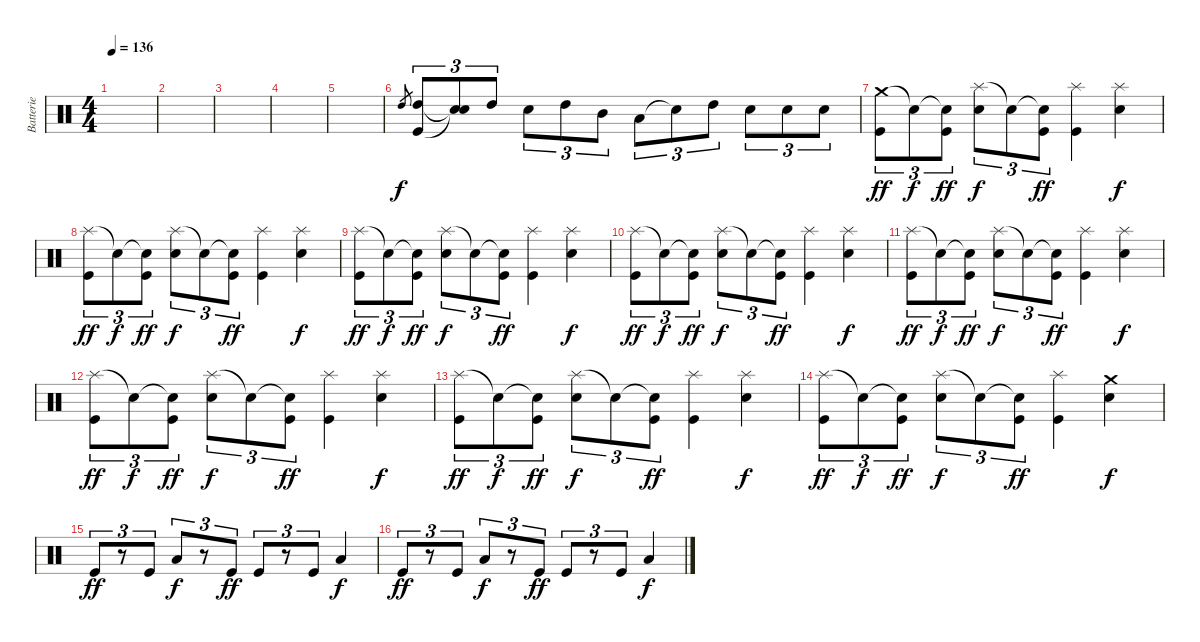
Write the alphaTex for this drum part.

\track ("Batterie" "Batterie") {instrument percussion}
\staff {score}
\articulation defaults
\ts (4 4)
\tempo 136
\clef neutral
\ks c
|
|
|
|
|
"High Tom (hit)".8{gr} ("High Tom (hit)" "Kick (hit)").8{tu (3 2)} ("Snare (hit)"{t} "Snare (hit)"{t}).8{tu (3 2)} "High Tom (hit)".8{tu (3 2)} "Snare (hit) 2".8{tu (3 2)} "High Tom (hit)".8{tu (3 2)} "Mid Tom (hit)".8{tu (3 2)} "Low Tom (hit)".8{tu (3 2)} "Snare (hit)"{t}.8{tu (3 2)} "High Tom (hit)".8{tu (3 2)} "Snare (hit) 2".8{tu (3 2)} "Snare (hit) 2".8{tu (3 2)} "Snare (hit) 2".8{tu (3 2)} |
("Crash medium (hit)" "Kick (hit)").8{tu (3 2) dy ff} "Snare (hit)"{t}.8{tu (3 2) dy f} ("Snare (hit)"{t} "Kick (hit)").8{tu (3 2) dy ff} ("Splash (hit)" "Snare (hit) 2").8{tu (3 2) dy f} "Snare (hit)"{t}.8{tu (3 2)} ("Snare (hit)"{t} "Kick (hit)").8{tu (3 2) dy ff} ("Splash (hit)" "Kick (hit)").4 ("Splash (hit)" "Snare (hit) 2").4{dy f} |
("Splash (hit)" "Kick (hit)").8{tu (3 2) dy ff} "Snare (hit)"{t}.8{tu (3 2) dy f} ("Snare (hit)"{t} "Kick (hit)").8{tu (3 2) dy ff} ("Splash (hit)" "Snare (hit) 2").8{tu (3 2) dy f} "Snare (hit)"{t}.8{tu (3 2)} ("Snare (hit)"{t} "Kick (hit)").8{tu (3 2) dy ff} ("Splash (hit)" "Kick (hit)").4 ("Splash (hit)" "Snare (hit) 2").4{dy f} |
("Splash (hit)" "Kick (hit)").8{tu (3 2) dy ff} "Snare (hit)"{t}.8{tu (3 2) dy f} ("Snare (hit)"{t} "Kick (hit)").8{tu (3 2) dy ff} ("Splash (hit)" "Snare (hit) 2").8{tu (3 2) dy f} "Snare (hit)"{t}.8{tu (3 2)} ("Snare (hit)"{t} "Kick (hit)").8{tu (3 2) dy ff} ("Splash (hit)" "Kick (hit)").4 ("Splash (hit)" "Snare (hit) 2").4{dy f} |
("Splash (hit)" "Kick (hit)").8{tu (3 2) dy ff} "Snare (hit)"{t}.8{tu (3 2) dy f} ("Snare (hit)"{t} "Kick (hit)").8{tu (3 2) dy ff} ("Splash (hit)" "Snare (hit) 2").8{tu (3 2) dy f} "Snare (hit)"{t}.8{tu (3 2)} ("Snare (hit)"{t} "Kick (hit)").8{tu (3 2) dy ff} ("Splash (hit)" "Kick (hit)").4 ("Splash (hit)" "Snare (hit) 2").4{dy f} |
("Splash (hit)" "Kick (hit)").8{tu (3 2) dy ff} "Snare (hit)"{t}.8{tu (3 2) dy f} ("Snare (hit)"{t} "Kick (hit)").8{tu (3 2) dy ff} ("Splash (hit)" "Snare (hit) 2").8{tu (3 2) dy f} "Snare (hit)"{t}.8{tu (3 2)} ("Snare (hit)"{t} "Kick (hit)").8{tu (3 2) dy ff} ("Splash (hit)" "Kick (hit)").4 ("Splash (hit)" "Snare (hit) 2").4{dy f} |
("Splash (hit)" "Kick (hit)").8{tu (3 2) dy ff} "Snare (hit)"{t}.8{tu (3 2) dy f} ("Snare (hit)"{t} "Kick (hit)").8{tu (3 2) dy ff} ("Splash (hit)" "Snare (hit) 2").8{tu (3 2) dy f} "Snare (hit)"{t}.8{tu (3 2)} ("Snare (hit)"{t} "Kick (hit)").8{tu (3 2) dy ff} ("Splash (hit)" "Kick (hit)").4 ("Splash (hit)" "Snare (hit) 2").4{dy f} |
("Splash (hit)" "Kick (hit)").8{tu (3 2) dy ff} "Snare (hit)"{t}.8{tu (3 2) dy f} ("Snare (hit)"{t} "Kick (hit)").8{tu (3 2) dy ff} ("Splash (hit)" "Snare (hit) 2").8{tu (3 2) dy f} "Snare (hit)"{t}.8{tu (3 2)} ("Snare (hit)"{t} "Kick (hit)").8{tu (3 2) dy ff} ("Splash (hit)" "Kick (hit)").4 ("Splash (hit)" "Snare (hit) 2").4{dy f} |
("Splash (hit)" "Kick (hit)").8{tu (3 2) dy ff} "Snare (hit)"{t}.8{tu (3 2) dy f} ("Snare (hit)"{t} "Kick (hit)").8{tu (3 2) dy ff} ("Splash (hit)" "Snare (hit) 2").8{tu (3 2) dy f} "Snare (hit)"{t}.8{tu (3 2)} ("Snare (hit)"{t} "Kick (hit)").8{tu (3 2) dy ff} ("Splash (hit)" "Kick (hit)").4 ("Crash medium (hit)" "Snare (hit) 2").4{dy f} |
"Kick (hit)".8{tu (3 2) dy ff} r.8{tu (3 2)} "Kick (hit)".8{tu (3 2)} "Low Tom (hit)".8{tu (3 2) dy f} r.8{tu (3 2)} "Kick (hit)".8{tu (3 2) dy ff} "Kick (hit)".8{tu (3 2)} r.8{tu (3 2)} "Kick (hit)".8{tu (3 2)} "Low Tom (hit)".4{dy f} |
"Kick (hit)".8{tu (3 2) dy ff} r.8{tu (3 2)} "Kick (hit)".8{tu (3 2)} "Low Tom (hit)".8{tu (3 2) dy f} r.8{tu (3 2)} "Kick (hit)".8{tu (3 2) dy ff} "Kick (hit)".8{tu (3 2)} r.8{tu (3 2)} "Kick (hit)".8{tu (3 2)} "Low Tom (hit)".4{dy f}
